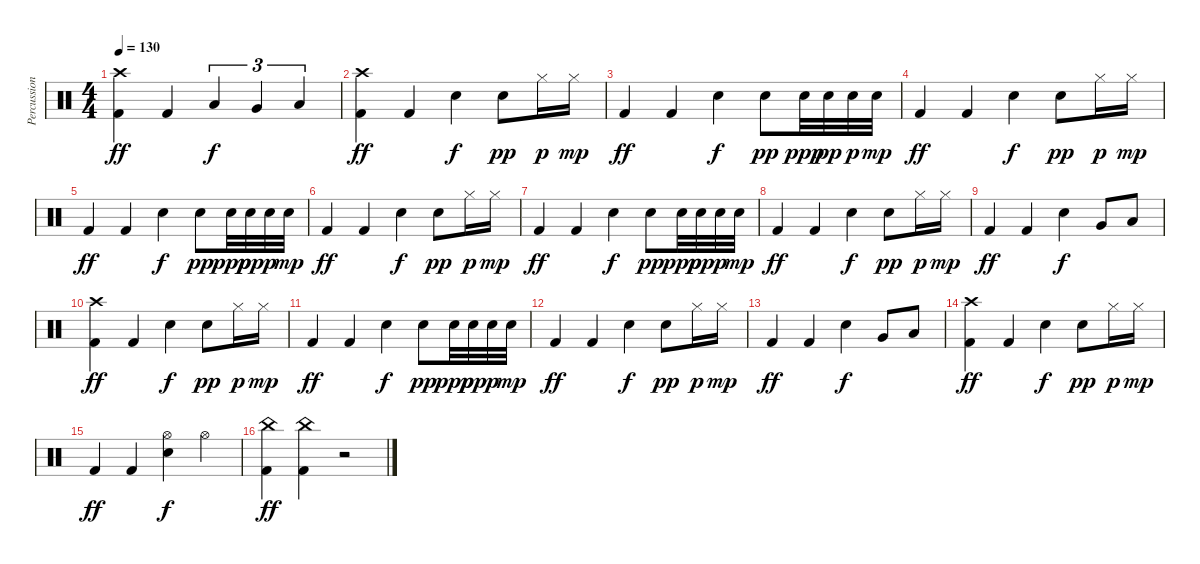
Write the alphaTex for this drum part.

\track ("Percussions" "Percussion") {instrument percussion}
\staff {score}
\articulation defaults
\ts (4 4)
\tempo 130
\clef neutral
\ks c
("Crash high (hit)" "Kick (hit) 2").4{dy ff} "Kick (hit) 2".4 "Low Tom (hit)".4{tu (3 2) dy f} "Very Low Tom (hit)".4{tu (3 2)} "Low Floor Tom (hit)".4{tu (3 2)} |
("Crash high (hit)" "Kick (hit) 2").4{dy ff} "Kick (hit) 2".4 "Snare (hit) 2".4{dy f} "Snare (hit) 2".8{dy pp} "Hi-Hat (closed)".16{dy p} "Hi-Hat (closed)".16{dy mp} |
"Kick (hit) 2".4{dy ff} "Kick (hit) 2".4 "Snare (hit) 2".4{dy f} "Snare (hit) 2".8{dy pp} "Snare (hit) 2".32{dy ppp} "Snare (hit) 2".32{dy pp} "Snare (hit) 2".32{dy p} "Snare (hit) 2".32{dy mp} |
"Kick (hit) 2".4{dy ff} "Kick (hit) 2".4 "Snare (hit) 2".4{dy f} "Snare (hit) 2".8{dy pp} "Hi-Hat (closed)".16{dy p} "Hi-Hat (closed)".16{dy mp} |
"Kick (hit) 2".4{dy ff} "Kick (hit) 2".4 "Snare (hit) 2".4{dy f} "Snare (hit) 2".8{dy pp} "Snare (hit) 2".32{dy ppp} "Snare (hit) 2".32{dy pp} "Snare (hit) 2".32{dy p} "Snare (hit) 2".32{dy mp} |
"Kick (hit) 2".4{dy ff} "Kick (hit) 2".4 "Snare (hit) 2".4{dy f} "Snare (hit) 2".8{dy pp} "Hi-Hat (closed)".16{dy p} "Hi-Hat (closed)".16{dy mp} |
"Kick (hit) 2".4{dy ff} "Kick (hit) 2".4 "Snare (hit) 2".4{dy f} "Snare (hit) 2".8{dy pp} "Snare (hit) 2".32{dy ppp} "Snare (hit) 2".32{dy pp} "Snare (hit) 2".32{dy p} "Snare (hit) 2".32{dy mp} |
"Kick (hit) 2".4{dy ff} "Kick (hit) 2".4 "Snare (hit) 2".4{dy f} "Snare (hit) 2".8{dy pp} "Hi-Hat (closed)".16{dy p} "Hi-Hat (closed)".16{dy mp} |
"Kick (hit) 2".4{dy ff} "Kick (hit) 2".4 "Snare (hit) 2".4{dy f} "Very Low Tom (hit)".8 "Low Floor Tom (hit)".8 |
("Crash high (hit)" "Kick (hit) 2").4{dy ff} "Kick (hit) 2".4 "Snare (hit) 2".4{dy f} "Snare (hit) 2".8{dy pp} "Hi-Hat (closed)".16{dy p} "Hi-Hat (closed)".16{dy mp} |
"Kick (hit) 2".4{dy ff} "Kick (hit) 2".4 "Snare (hit) 2".4{dy f} "Snare (hit) 2".8{dy pp} "Snare (hit) 2".32{dy ppp} "Snare (hit) 2".32{dy pp} "Snare (hit) 2".32{dy p} "Snare (hit) 2".32{dy mp} |
"Kick (hit) 2".4{dy ff} "Kick (hit) 2".4 "Snare (hit) 2".4{dy f} "Snare (hit) 2".8{dy pp} "Hi-Hat (closed)".16{dy p} "Hi-Hat (closed)".16{dy mp} |
"Kick (hit) 2".4{dy ff} "Kick (hit) 2".4 "Snare (hit) 2".4{dy f} "Very Low Tom (hit)".8 "Low Floor Tom (hit)".8 |
("Crash high (hit)" "Kick (hit) 2").4{dy ff} "Kick (hit) 2".4 "Snare (hit) 2".4{dy f} "Snare (hit) 2".8{dy pp} "Hi-Hat (closed)".16{dy p} "Hi-Hat (closed)".16{dy mp} |
"Kick (hit) 2".4{dy ff} "Kick (hit) 2".4 ("Snare (hit) 2" "Hi-Hat (open)").4{dy f} "Hi-Hat (open)".4 |
("China (hit)" "Kick (hit) 2").4{dy ff} ("China (hit)" "Kick (hit) 2").4 r.2
